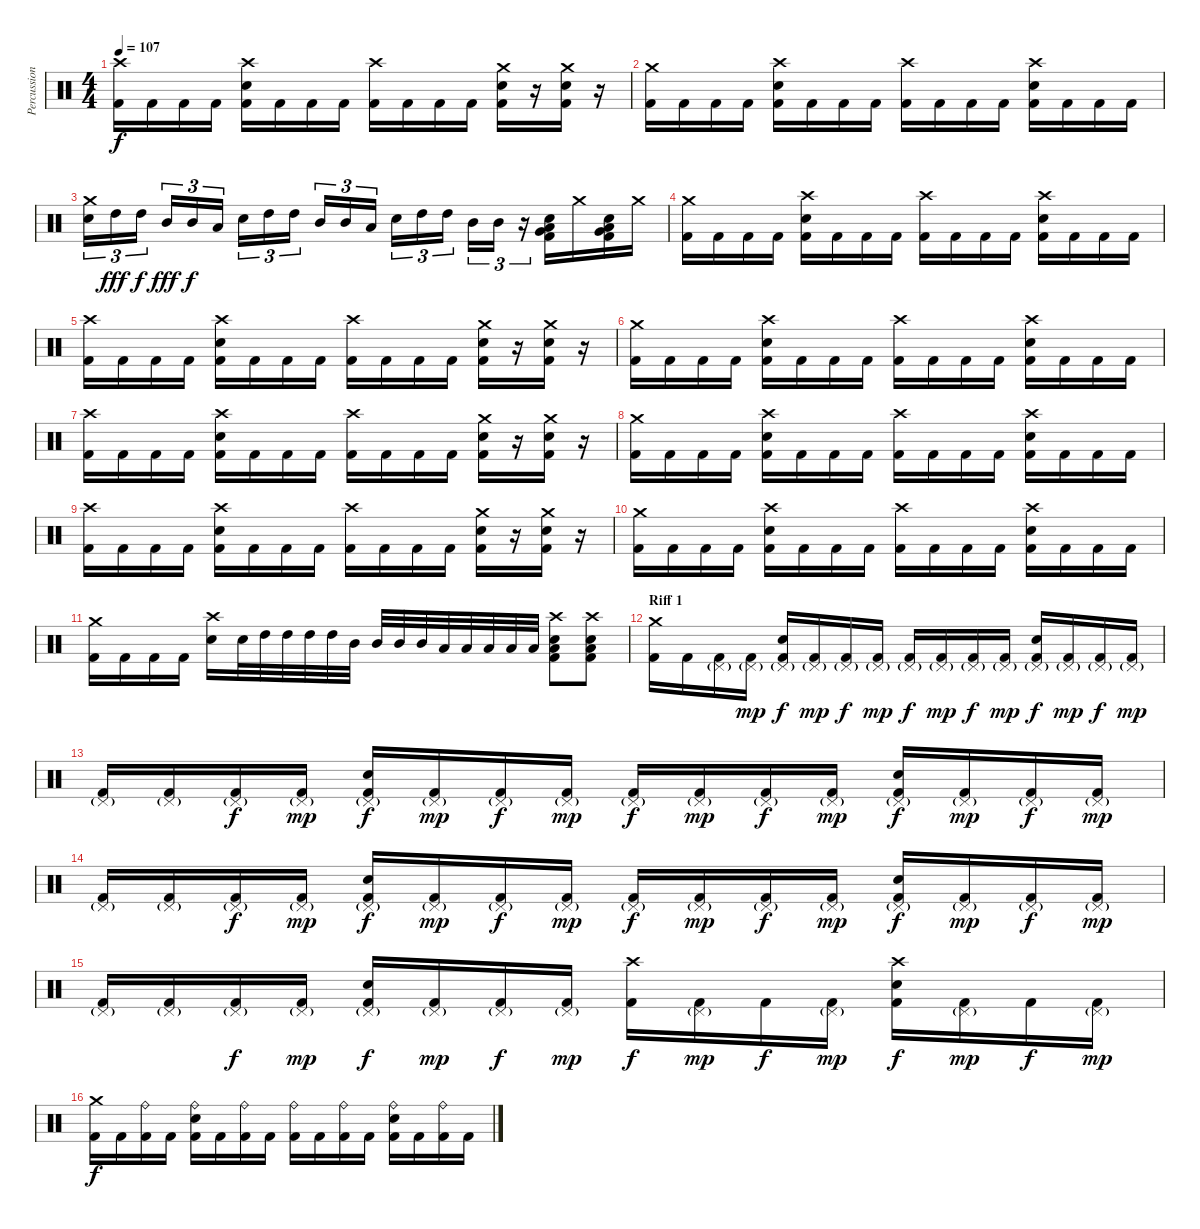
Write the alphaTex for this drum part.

\track ("Percussions" "Percussion") {instrument percussion}
\staff {score}
\articulation defaults
\ts (4 4)
\tempo 107
\clef neutral
\ks c
("Crash high (hit)" "Kick (hit) 2").16{dy f} "Kick (hit) 2".16 "Kick (hit) 2".16 "Kick (hit) 2".16 ("Crash high (hit)" "Electric Snare (hit)" "Kick (hit) 2").16 "Kick (hit) 2".16 "Kick (hit) 2".16 "Kick (hit) 2".16 ("Crash high (hit)" "Kick (hit) 2").16 "Kick (hit) 2".16 "Kick (hit) 2".16 "Kick (hit) 2".16 ("Crash medium (hit)" "Electric Snare (hit)" "Kick (hit) 2").16 r.16 ("Crash medium (hit)" "Electric Snare (hit)" "Kick (hit) 2").16 r.16 |
("Crash medium (hit)" "Kick (hit) 2").16 "Kick (hit) 2".16 "Kick (hit) 2".16 "Kick (hit) 2".16 ("Crash high (hit)" "Electric Snare (hit)" "Kick (hit) 2").16 "Kick (hit) 2".16 "Kick (hit) 2".16 "Kick (hit) 2".16 ("Crash high (hit)" "Kick (hit) 2").16 "Kick (hit) 2".16 "Kick (hit) 2".16 "Kick (hit) 2".16 ("Crash high (hit)" "Electric Snare (hit)" "Kick (hit) 2").16 "Kick (hit) 2".16 "Kick (hit) 2".16 "Kick (hit) 2".16 |
("Crash medium (hit)" "Electric Snare (hit)").16{tu (3 2)} "High Tom (hit)".16{tu (3 2) dy fff} "High Tom (hit)".16{tu (3 2) dy f} "Mid Tom (hit)".16{tu (3 2) dy fff} "Mid Tom (hit)".16{tu (3 2) dy f} "Low Tom (hit)".16{tu (3 2)} "Electric Snare (hit)".16{tu (3 2)} "High Tom (hit)".16{tu (3 2)} "High Tom (hit)".16{tu (3 2)} "Mid Tom (hit)".16{tu (3 2)} "Mid Tom (hit)".16{tu (3 2)} "Low Tom (hit)".16{tu (3 2)} "Electric Snare (hit)".16{tu (3 2)} "High Tom (hit)".16{tu (3 2)} "High Tom (hit)".16{tu (3 2)} "Mid Tom (hit)".16{tu (3 2)} "Mid Tom (hit)".16{tu (3 2)} r.16{tu (3 2)} ("Electric Snare (hit)" "Very Low Tom (hit)" "Low Tom (hit)" "Kick (hit) 2").16 "Crash medium (hit)".16 ("Electric Snare (hit)" "Very Low Tom (hit)" "Low Tom (hit)" "Kick (hit) 2").16 "Crash medium (hit)".16 |
("Crash medium (hit)" "Kick (hit) 2").16 "Kick (hit) 2".16 "Kick (hit) 2".16 "Kick (hit) 2".16 ("Crash high (hit)" "Electric Snare (hit)" "Kick (hit) 2").16 "Kick (hit) 2".16 "Kick (hit) 2".16 "Kick (hit) 2".16 ("Crash high (hit)" "Kick (hit) 2").16 "Kick (hit) 2".16 "Kick (hit) 2".16 "Kick (hit) 2".16 ("Crash high (hit)" "Electric Snare (hit)" "Kick (hit) 2").16 "Kick (hit) 2".16 "Kick (hit) 2".16 "Kick (hit) 2".16 |
("Crash high (hit)" "Kick (hit) 2").16 "Kick (hit) 2".16 "Kick (hit) 2".16 "Kick (hit) 2".16 ("Crash high (hit)" "Electric Snare (hit)" "Kick (hit) 2").16 "Kick (hit) 2".16 "Kick (hit) 2".16 "Kick (hit) 2".16 ("Crash high (hit)" "Kick (hit) 2").16 "Kick (hit) 2".16 "Kick (hit) 2".16 "Kick (hit) 2".16 ("Crash medium (hit)" "Electric Snare (hit)" "Kick (hit) 2").16 r.16 ("Crash medium (hit)" "Electric Snare (hit)" "Kick (hit) 2").16 r.16 |
("Crash medium (hit)" "Kick (hit) 2").16 "Kick (hit) 2".16 "Kick (hit) 2".16 "Kick (hit) 2".16 ("Crash high (hit)" "Electric Snare (hit)" "Kick (hit) 2").16 "Kick (hit) 2".16 "Kick (hit) 2".16 "Kick (hit) 2".16 ("Crash high (hit)" "Kick (hit) 2").16 "Kick (hit) 2".16 "Kick (hit) 2".16 "Kick (hit) 2".16 ("Crash high (hit)" "Electric Snare (hit)" "Kick (hit) 2").16 "Kick (hit) 2".16 "Kick (hit) 2".16 "Kick (hit) 2".16 |
("Crash high (hit)" "Kick (hit) 2").16 "Kick (hit) 2".16 "Kick (hit) 2".16 "Kick (hit) 2".16 ("Crash high (hit)" "Electric Snare (hit)" "Kick (hit) 2").16 "Kick (hit) 2".16 "Kick (hit) 2".16 "Kick (hit) 2".16 ("Crash high (hit)" "Kick (hit) 2").16 "Kick (hit) 2".16 "Kick (hit) 2".16 "Kick (hit) 2".16 ("Crash medium (hit)" "Electric Snare (hit)" "Kick (hit) 2").16 r.16 ("Crash medium (hit)" "Electric Snare (hit)" "Kick (hit) 2").16 r.16 |
("Crash medium (hit)" "Kick (hit) 2").16 "Kick (hit) 2".16 "Kick (hit) 2".16 "Kick (hit) 2".16 ("Crash high (hit)" "Electric Snare (hit)" "Kick (hit) 2").16 "Kick (hit) 2".16 "Kick (hit) 2".16 "Kick (hit) 2".16 ("Crash high (hit)" "Kick (hit) 2").16 "Kick (hit) 2".16 "Kick (hit) 2".16 "Kick (hit) 2".16 ("Crash high (hit)" "Electric Snare (hit)" "Kick (hit) 2").16 "Kick (hit) 2".16 "Kick (hit) 2".16 "Kick (hit) 2".16 |
("Crash high (hit)" "Kick (hit) 2").16 "Kick (hit) 2".16 "Kick (hit) 2".16 "Kick (hit) 2".16 ("Crash high (hit)" "Electric Snare (hit)" "Kick (hit) 2").16 "Kick (hit) 2".16 "Kick (hit) 2".16 "Kick (hit) 2".16 ("Crash high (hit)" "Kick (hit) 2").16 "Kick (hit) 2".16 "Kick (hit) 2".16 "Kick (hit) 2".16 ("Crash medium (hit)" "Electric Snare (hit)" "Kick (hit) 2").16 r.16 ("Crash medium (hit)" "Electric Snare (hit)" "Kick (hit) 2").16 r.16 |
("Crash medium (hit)" "Kick (hit) 2").16 "Kick (hit) 2".16 "Kick (hit) 2".16 "Kick (hit) 2".16 ("Crash high (hit)" "Electric Snare (hit)" "Kick (hit) 2").16 "Kick (hit) 2".16 "Kick (hit) 2".16 "Kick (hit) 2".16 ("Crash high (hit)" "Kick (hit) 2").16 "Kick (hit) 2".16 "Kick (hit) 2".16 "Kick (hit) 2".16 ("Crash high (hit)" "Electric Snare (hit)" "Kick (hit) 2").16 "Kick (hit) 2".16 "Kick (hit) 2".16 "Kick (hit) 2".16 |
("Crash medium (hit)" "Kick (hit) 2").16 "Kick (hit) 2".16 "Kick (hit) 2".16 "Kick (hit) 2".16 ("Crash high (hit)" "Electric Snare (hit)").16 "Electric Snare (hit)".32 "High Tom (hit)".32 "High Tom (hit)".32 "High Tom (hit)".32 "High Tom (hit)".32 "Mid Tom (hit)".32 "Mid Tom (hit)".32 "Mid Tom (hit)".32 "Mid Tom (hit)".32 "Low Tom (hit)".32 "Low Tom (hit)".32 "Low Tom (hit)".32 "Low Tom (hit)".32 "Low Tom (hit)".32 ("Crash high (hit)" "Electric Snare (hit)" "Low Tom (hit)" "Kick (hit) 2").8 ("Crash high (hit)" "Electric Snare (hit)" "Low Tom (hit)" "Kick (hit) 2").8 |
\section ("" "Riff 1")
("Crash medium (hit)" "Kick (hit) 2").16 "Kick (hit) 2".16 ("Pedal Hi-Hat (hit)"{g} "Kick (hit) 2").16 ("Pedal Hi-Hat (hit)"{g} "Kick (hit) 2").16{dy mp} ("Pedal Hi-Hat (hit)"{g} "Electric Snare (hit)" "Kick (hit) 2").16{dy f} ("Pedal Hi-Hat (hit)"{g} "Kick (hit) 2").16{dy mp} ("Pedal Hi-Hat (hit)"{g} "Kick (hit) 2").16{dy f} ("Pedal Hi-Hat (hit)"{g} "Kick (hit) 2").16{dy mp} ("Pedal Hi-Hat (hit)"{g} "Kick (hit) 2").16{dy f} ("Pedal Hi-Hat (hit)"{g} "Kick (hit) 2").16{dy mp} ("Pedal Hi-Hat (hit)"{g} "Kick (hit) 2").16{dy f} ("Pedal Hi-Hat (hit)"{g} "Kick (hit) 2").16{dy mp} ("Pedal Hi-Hat (hit)"{g} "Electric Snare (hit)" "Kick (hit) 2").16{dy f} ("Pedal Hi-Hat (hit)"{g} "Kick (hit) 2").16{dy mp} ("Pedal Hi-Hat (hit)"{g} "Kick (hit) 2").16{dy f} ("Pedal Hi-Hat (hit)"{g} "Kick (hit) 2").16{dy mp} |
("Pedal Hi-Hat (hit)"{g} "Kick (hit) 2").16 ("Pedal Hi-Hat (hit)"{g} "Kick (hit) 2").16 ("Pedal Hi-Hat (hit)"{g} "Kick (hit) 2").16{dy f} ("Pedal Hi-Hat (hit)"{g} "Kick (hit) 2").16{dy mp} ("Pedal Hi-Hat (hit)"{g} "Electric Snare (hit)" "Kick (hit) 2").16{dy f} ("Pedal Hi-Hat (hit)"{g} "Kick (hit) 2").16{dy mp} ("Pedal Hi-Hat (hit)"{g} "Kick (hit) 2").16{dy f} ("Pedal Hi-Hat (hit)"{g} "Kick (hit) 2").16{dy mp} ("Pedal Hi-Hat (hit)"{g} "Kick (hit) 2").16{dy f} ("Pedal Hi-Hat (hit)"{g} "Kick (hit) 2").16{dy mp} ("Pedal Hi-Hat (hit)"{g} "Kick (hit) 2").16{dy f} ("Pedal Hi-Hat (hit)"{g} "Kick (hit) 2").16{dy mp} ("Pedal Hi-Hat (hit)"{g} "Electric Snare (hit)" "Kick (hit) 2").16{dy f} ("Pedal Hi-Hat (hit)"{g} "Kick (hit) 2").16{dy mp} ("Pedal Hi-Hat (hit)"{g} "Kick (hit) 2").16{dy f} ("Pedal Hi-Hat (hit)"{g} "Kick (hit) 2").16{dy mp} |
("Pedal Hi-Hat (hit)"{g} "Kick (hit) 2").16 ("Pedal Hi-Hat (hit)"{g} "Kick (hit) 2").16 ("Pedal Hi-Hat (hit)"{g} "Kick (hit) 2").16{dy f} ("Pedal Hi-Hat (hit)"{g} "Kick (hit) 2").16{dy mp} ("Pedal Hi-Hat (hit)"{g} "Electric Snare (hit)" "Kick (hit) 2").16{dy f} ("Pedal Hi-Hat (hit)"{g} "Kick (hit) 2").16{dy mp} ("Pedal Hi-Hat (hit)"{g} "Kick (hit) 2").16{dy f} ("Pedal Hi-Hat (hit)"{g} "Kick (hit) 2").16{dy mp} ("Pedal Hi-Hat (hit)"{g} "Kick (hit) 2").16{dy f} ("Pedal Hi-Hat (hit)"{g} "Kick (hit) 2").16{dy mp} ("Pedal Hi-Hat (hit)"{g} "Kick (hit) 2").16{dy f} ("Pedal Hi-Hat (hit)"{g} "Kick (hit) 2").16{dy mp} ("Pedal Hi-Hat (hit)"{g} "Electric Snare (hit)" "Kick (hit) 2").16{dy f} ("Pedal Hi-Hat (hit)"{g} "Kick (hit) 2").16{dy mp} ("Pedal Hi-Hat (hit)"{g} "Kick (hit) 2").16{dy f} ("Pedal Hi-Hat (hit)"{g} "Kick (hit) 2").16{dy mp} |
("Pedal Hi-Hat (hit)"{g} "Kick (hit) 2").16 ("Pedal Hi-Hat (hit)"{g} "Kick (hit) 2").16 ("Pedal Hi-Hat (hit)"{g} "Kick (hit) 2").16{dy f} ("Pedal Hi-Hat (hit)"{g} "Kick (hit) 2").16{dy mp} ("Pedal Hi-Hat (hit)"{g} "Electric Snare (hit)" "Kick (hit) 2").16{dy f} ("Pedal Hi-Hat (hit)"{g} "Kick (hit) 2").16{dy mp} ("Pedal Hi-Hat (hit)"{g} "Kick (hit) 2").16{dy f} ("Pedal Hi-Hat (hit)"{g} "Kick (hit) 2").16{dy mp} ("Crash high (hit)" "Kick (hit) 2").16{dy f} ("Pedal Hi-Hat (hit)"{g} "Kick (hit) 2").16{dy mp} "Kick (hit) 2".16{dy f} ("Pedal Hi-Hat (hit)"{g} "Kick (hit) 2").16{dy mp} ("Crash high (hit)" "Electric Snare (hit)" "Kick (hit) 2").16{dy f} ("Pedal Hi-Hat (hit)"{g} "Kick (hit) 2").16{dy mp} "Kick (hit) 2".16{dy f} ("Pedal Hi-Hat (hit)"{g} "Kick (hit) 2").16{dy mp} |
("Crash medium (hit)" "Kick (hit) 2").16{dy f} "Kick (hit) 2".16 ("Ride (bell)" "Kick (hit) 2").16 "Kick (hit) 2".16 ("Ride (bell)" "Electric Snare (hit)" "Kick (hit) 2").16 "Kick (hit) 2".16 ("Ride (bell)" "Kick (hit) 2").16 "Kick (hit) 2".16 ("Ride (bell)" "Kick (hit) 2").16 "Kick (hit) 2".16 ("Ride (bell)" "Kick (hit) 2").16 "Kick (hit) 2".16 ("Ride (bell)" "Electric Snare (hit)" "Kick (hit) 2").16 "Kick (hit) 2".16 ("Ride (bell)" "Kick (hit) 2").16 "Kick (hit) 2".16
